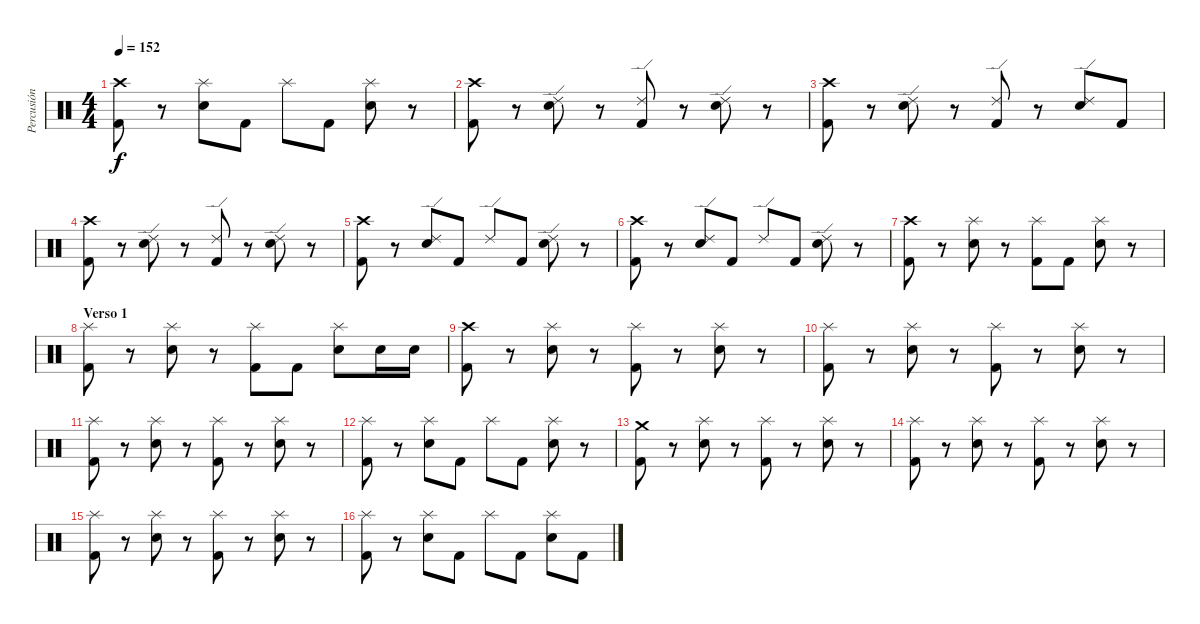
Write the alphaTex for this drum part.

\track ("Percusión" "Percusión") {instrument percussion}
\staff {score}
\articulation defaults
\ts (4 4)
\tempo 152
\clef neutral
\ks c
("Crash high (hit)" "Kick (hit) 2").8{dy f} r.8 ("Splash (hit)" "Snare (hit) 2").8 "Kick (hit) 2".8 "Splash (hit)".8 "Kick (hit) 2".8 ("Splash (hit)" "Snare (hit) 2").8 r.8 |
("Crash high (hit)" "Kick (hit) 2").8 r.8 ("Ride (edge) 2" "Snare (hit) 2").8 r.8 ("Ride (edge) 2" "Kick (hit) 2").8 r.8 ("Ride (edge) 2" "Snare (hit) 2").8 r.8 |
("Crash high (hit)" "Kick (hit) 2").8 r.8 ("Ride (edge) 2" "Snare (hit) 2").8 r.8 ("Ride (edge) 2" "Kick (hit) 2").8 r.8 ("Ride (edge) 2" "Snare (hit) 2").8 "Kick (hit) 2".8 |
("Crash high (hit)" "Kick (hit) 2").8 r.8 ("Ride (edge) 2" "Snare (hit) 2").8 r.8 ("Ride (edge) 2" "Kick (hit) 2").8 r.8 ("Ride (edge) 2" "Snare (hit) 2").8 r.8 |
("Crash high (hit)" "Kick (hit) 2").8 r.8 ("Ride (edge) 2" "Snare (hit) 2").8 "Kick (hit) 2".8 "Ride (edge) 2".8 "Kick (hit) 2".8 ("Ride (edge) 2" "Snare (hit) 2").8 r.8 |
("Crash high (hit)" "Kick (hit) 2").8 r.8 ("Ride (edge) 2" "Snare (hit) 2").8 "Kick (hit) 2".8 "Ride (edge) 2".8 "Kick (hit) 2".8 ("Ride (edge) 2" "Snare (hit) 2").8 r.8 |
("Crash high (hit)" "Kick (hit) 2").8 r.8 ("Splash (hit)" "Snare (hit) 2").8 r.8 ("Splash (hit)" "Kick (hit) 2").8 "Kick (hit) 2".8 ("Splash (hit)" "Snare (hit) 2").8 r.8 |
\section ("" "Verso 1")
("Splash (hit)" "Kick (hit) 2").8 r.8 ("Splash (hit)" "Snare (hit) 2").8 r.8 ("Splash (hit)" "Kick (hit) 2").8 "Kick (hit) 2".8 ("Splash (hit)" "Snare (hit) 2").8 "Snare (hit) 2".16 "Snare (hit) 2".16 |
("Crash high (hit)" "Kick (hit) 2").8 r.8 ("Splash (hit)" "Snare (hit) 2").8 r.8 ("Splash (hit)" "Kick (hit) 2").8 r.8 ("Splash (hit)" "Snare (hit) 2").8 r.8 |
("Splash (hit)" "Kick (hit) 2").8 r.8 ("Splash (hit)" "Snare (hit) 2").8 r.8 ("Splash (hit)" "Kick (hit) 2").8 r.8 ("Splash (hit)" "Snare (hit) 2").8 r.8 |
("Splash (hit)" "Kick (hit) 2").8 r.8 ("Splash (hit)" "Snare (hit) 2").8 r.8 ("Splash (hit)" "Kick (hit) 2").8 r.8 ("Splash (hit)" "Snare (hit) 2").8 r.8 |
("Splash (hit)" "Kick (hit) 2").8 r.8 ("Splash (hit)" "Snare (hit) 2").8 "Kick (hit) 2".8 "Splash (hit)".8 "Kick (hit) 2".8 ("Splash (hit)" "Snare (hit) 2").8 r.8 |
("Crash medium (hit)" "Kick (hit) 2").8 r.8 ("Splash (hit)" "Snare (hit) 2").8 r.8 ("Splash (hit)" "Kick (hit) 2").8 r.8 ("Splash (hit)" "Snare (hit) 2").8 r.8 |
("Splash (hit)" "Kick (hit) 2").8 r.8 ("Splash (hit)" "Snare (hit) 2").8 r.8 ("Splash (hit)" "Kick (hit) 2").8 r.8 ("Splash (hit)" "Snare (hit) 2").8 r.8 |
("Splash (hit)" "Kick (hit) 2").8 r.8 ("Splash (hit)" "Snare (hit) 2").8 r.8 ("Splash (hit)" "Kick (hit) 2").8 r.8 ("Splash (hit)" "Snare (hit) 2").8 r.8 |
("Splash (hit)" "Kick (hit) 2").8 r.8 ("Splash (hit)" "Snare (hit) 2").8 "Kick (hit) 2".8 "Splash (hit)".8 "Kick (hit) 2".8 ("Splash (hit)" "Snare (hit) 2").8 "Kick (hit) 2".8
